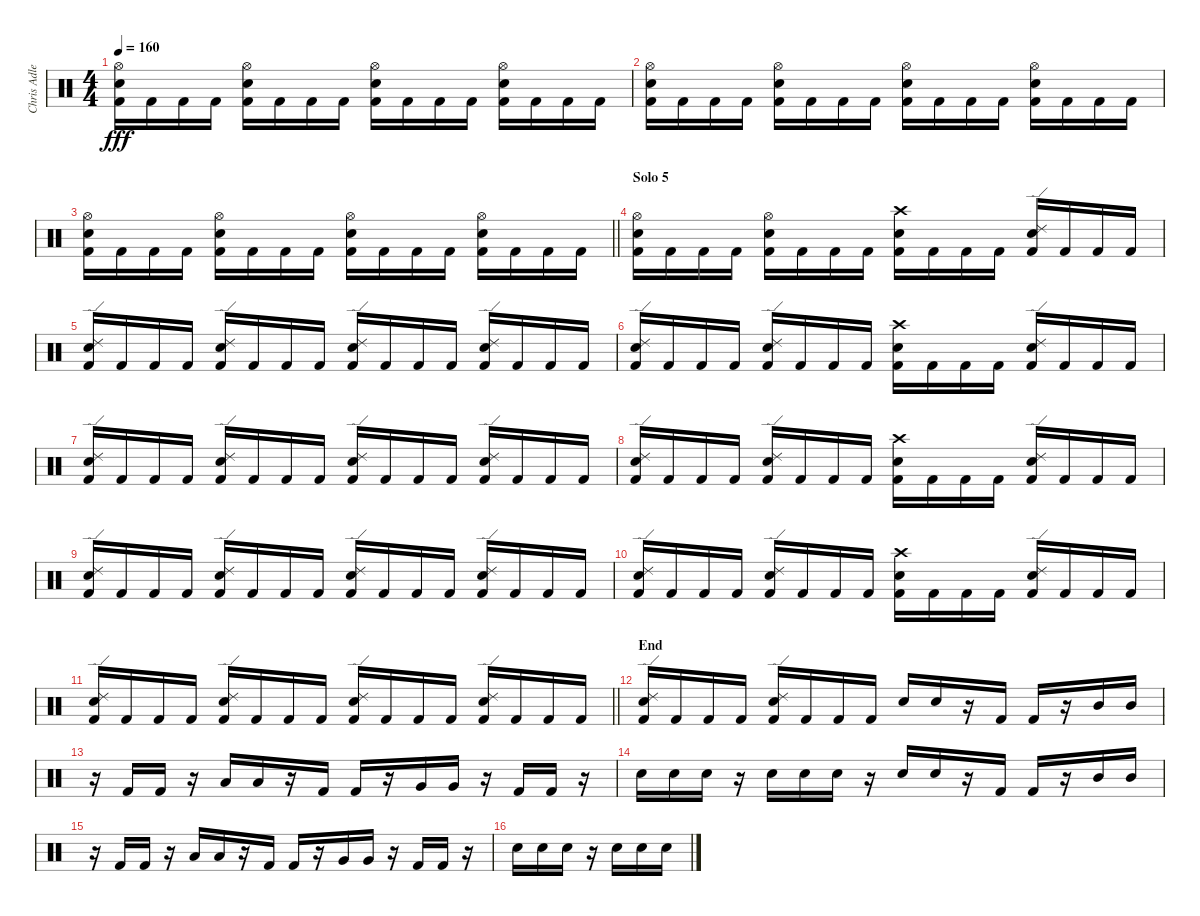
\track ("Chris Adler" "Chris Adle") {instrument percussion}
\staff {score}
\articulation defaults
\ts (4 4)
\tempo 160
\clef neutral
\ks c
("Hi-Hat (open)" "Snare (hit) 2" "Kick (hit) 2").16{dy fff} "Kick (hit) 2".16 "Kick (hit) 2".16 "Kick (hit) 2".16 ("Hi-Hat (open)" "Snare (hit) 2" "Kick (hit) 2").16 "Kick (hit) 2".16 "Kick (hit) 2".16 "Kick (hit) 2".16 ("Hi-Hat (open)" "Snare (hit) 2" "Kick (hit) 2").16 "Kick (hit) 2".16 "Kick (hit) 2".16 "Kick (hit) 2".16 ("Hi-Hat (open)" "Snare (hit) 2" "Kick (hit) 2").16 "Kick (hit) 2".16 "Kick (hit) 2".16 "Kick (hit) 2".16 |
("Hi-Hat (open)" "Snare (hit) 2" "Kick (hit) 2").16 "Kick (hit) 2".16 "Kick (hit) 2".16 "Kick (hit) 2".16 ("Hi-Hat (open)" "Snare (hit) 2" "Kick (hit) 2").16 "Kick (hit) 2".16 "Kick (hit) 2".16 "Kick (hit) 2".16 ("Hi-Hat (open)" "Snare (hit) 2" "Kick (hit) 2").16 "Kick (hit) 2".16 "Kick (hit) 2".16 "Kick (hit) 2".16 ("Hi-Hat (open)" "Snare (hit) 2" "Kick (hit) 2").16 "Kick (hit) 2".16 "Kick (hit) 2".16 "Kick (hit) 2".16 |
\barLineRight lightlight
("Hi-Hat (open)" "Snare (hit) 2" "Kick (hit) 2").16 "Kick (hit) 2".16 "Kick (hit) 2".16 "Kick (hit) 2".16 ("Hi-Hat (open)" "Snare (hit) 2" "Kick (hit) 2").16 "Kick (hit) 2".16 "Kick (hit) 2".16 "Kick (hit) 2".16 ("Hi-Hat (open)" "Snare (hit) 2" "Kick (hit) 2").16 "Kick (hit) 2".16 "Kick (hit) 2".16 "Kick (hit) 2".16 ("Hi-Hat (open)" "Snare (hit) 2" "Kick (hit) 2").16 "Kick (hit) 2".16 "Kick (hit) 2".16 "Kick (hit) 2".16 |
\section ("" "Solo 5")
("Hi-Hat (open)" "Snare (hit) 2" "Kick (hit) 2").16 "Kick (hit) 2".16 "Kick (hit) 2".16 "Kick (hit) 2".16 ("Hi-Hat (open)" "Snare (hit) 2" "Kick (hit) 2").16 "Kick (hit) 2".16 "Kick (hit) 2".16 "Kick (hit) 2".16 ("Crash high (hit)" "Snare (hit) 2" "Kick (hit) 2").16 "Kick (hit) 2".16 "Kick (hit) 2".16 "Kick (hit) 2".16 ("Ride (edge) 2" "Snare (hit) 2" "Kick (hit) 2").16 "Kick (hit) 2".16 "Kick (hit) 2".16 "Kick (hit) 2".16 |
("Ride (edge) 2" "Snare (hit) 2" "Kick (hit) 2").16 "Kick (hit) 2".16 "Kick (hit) 2".16 "Kick (hit) 2".16 ("Ride (edge) 2" "Snare (hit) 2" "Kick (hit) 2").16 "Kick (hit) 2".16 "Kick (hit) 2".16 "Kick (hit) 2".16 ("Ride (edge) 2" "Snare (hit) 2" "Kick (hit) 2").16 "Kick (hit) 2".16 "Kick (hit) 2".16 "Kick (hit) 2".16 ("Ride (edge) 2" "Snare (hit) 2" "Kick (hit) 2").16 "Kick (hit) 2".16 "Kick (hit) 2".16 "Kick (hit) 2".16 |
("Ride (edge) 2" "Snare (hit) 2" "Kick (hit) 2").16 "Kick (hit) 2".16 "Kick (hit) 2".16 "Kick (hit) 2".16 ("Ride (edge) 2" "Snare (hit) 2" "Kick (hit) 2").16 "Kick (hit) 2".16 "Kick (hit) 2".16 "Kick (hit) 2".16 ("Crash high (hit)" "Snare (hit) 2" "Kick (hit) 2").16 "Kick (hit) 2".16 "Kick (hit) 2".16 "Kick (hit) 2".16 ("Ride (edge) 2" "Snare (hit) 2" "Kick (hit) 2").16 "Kick (hit) 2".16 "Kick (hit) 2".16 "Kick (hit) 2".16 |
("Ride (edge) 2" "Snare (hit) 2" "Kick (hit) 2").16 "Kick (hit) 2".16 "Kick (hit) 2".16 "Kick (hit) 2".16 ("Ride (edge) 2" "Snare (hit) 2" "Kick (hit) 2").16 "Kick (hit) 2".16 "Kick (hit) 2".16 "Kick (hit) 2".16 ("Ride (edge) 2" "Snare (hit) 2" "Kick (hit) 2").16 "Kick (hit) 2".16 "Kick (hit) 2".16 "Kick (hit) 2".16 ("Ride (edge) 2" "Snare (hit) 2" "Kick (hit) 2").16 "Kick (hit) 2".16 "Kick (hit) 2".16 "Kick (hit) 2".16 |
("Ride (edge) 2" "Snare (hit) 2" "Kick (hit) 2").16 "Kick (hit) 2".16 "Kick (hit) 2".16 "Kick (hit) 2".16 ("Ride (edge) 2" "Snare (hit) 2" "Kick (hit) 2").16 "Kick (hit) 2".16 "Kick (hit) 2".16 "Kick (hit) 2".16 ("Crash high (hit)" "Snare (hit) 2" "Kick (hit) 2").16 "Kick (hit) 2".16 "Kick (hit) 2".16 "Kick (hit) 2".16 ("Ride (edge) 2" "Snare (hit) 2" "Kick (hit) 2").16 "Kick (hit) 2".16 "Kick (hit) 2".16 "Kick (hit) 2".16 |
("Ride (edge) 2" "Snare (hit) 2" "Kick (hit) 2").16 "Kick (hit) 2".16 "Kick (hit) 2".16 "Kick (hit) 2".16 ("Ride (edge) 2" "Snare (hit) 2" "Kick (hit) 2").16 "Kick (hit) 2".16 "Kick (hit) 2".16 "Kick (hit) 2".16 ("Ride (edge) 2" "Snare (hit) 2" "Kick (hit) 2").16 "Kick (hit) 2".16 "Kick (hit) 2".16 "Kick (hit) 2".16 ("Ride (edge) 2" "Snare (hit) 2" "Kick (hit) 2").16 "Kick (hit) 2".16 "Kick (hit) 2".16 "Kick (hit) 2".16 |
("Ride (edge) 2" "Snare (hit) 2" "Kick (hit) 2").16 "Kick (hit) 2".16 "Kick (hit) 2".16 "Kick (hit) 2".16 ("Ride (edge) 2" "Snare (hit) 2" "Kick (hit) 2").16 "Kick (hit) 2".16 "Kick (hit) 2".16 "Kick (hit) 2".16 ("Crash high (hit)" "Snare (hit) 2" "Kick (hit) 2").16 "Kick (hit) 2".16 "Kick (hit) 2".16 "Kick (hit) 2".16 ("Ride (edge) 2" "Snare (hit) 2" "Kick (hit) 2").16 "Kick (hit) 2".16 "Kick (hit) 2".16 "Kick (hit) 2".16 |
\barLineRight lightlight
("Ride (edge) 2" "Snare (hit) 2" "Kick (hit) 2").16 "Kick (hit) 2".16 "Kick (hit) 2".16 "Kick (hit) 2".16 ("Ride (edge) 2" "Snare (hit) 2" "Kick (hit) 2").16 "Kick (hit) 2".16 "Kick (hit) 2".16 "Kick (hit) 2".16 ("Ride (edge) 2" "Snare (hit) 2" "Kick (hit) 2").16 "Kick (hit) 2".16 "Kick (hit) 2".16 "Kick (hit) 2".16 ("Ride (edge) 2" "Snare (hit) 2" "Kick (hit) 2").16 "Kick (hit) 2".16 "Kick (hit) 2".16 "Kick (hit) 2".16 |
\section ("" "End")
("Ride (edge) 2" "Snare (hit) 2" "Kick (hit) 2").16 "Kick (hit) 2".16 "Kick (hit) 2".16 "Kick (hit) 2".16 ("Ride (edge) 2" "Snare (hit) 2" "Kick (hit) 2").16 "Kick (hit) 2".16 "Kick (hit) 2".16 "Kick (hit) 2".16 "Snare (hit) 2".16 "Snare (hit) 2".16 r.16 "Kick (hit) 2".16 "Kick (hit) 2".16 r.16 "Mid Tom (hit)".16 "Mid Tom (hit)".16 |
r.16 "Kick (hit) 2".16 "Kick (hit) 2".16 r.16 "Low Tom (hit)".16 "Low Tom (hit)".16 r.16 "Kick (hit) 2".16 "Kick (hit) 2".16 r.16 "Very Low Tom (hit)".16 "Very Low Tom (hit)".16 r.16 "Kick (hit) 2".16 "Kick (hit) 2".16 r.16 |
"Snare (hit) 2".16 "Snare (hit) 2".16 "Snare (hit) 2".16 r.16 "Snare (hit) 2".16 "Snare (hit) 2".16 "Snare (hit) 2".16 r.16 "Snare (hit) 2".16 "Snare (hit) 2".16 r.16 "Kick (hit) 2".16 "Kick (hit) 2".16 r.16 "Mid Tom (hit)".16 "Mid Tom (hit)".16 |
r.16 "Kick (hit) 2".16 "Kick (hit) 2".16 r.16 "Low Tom (hit)".16 "Low Tom (hit)".16 r.16 "Kick (hit) 2".16 "Kick (hit) 2".16 r.16 "Very Low Tom (hit)".16 "Very Low Tom (hit)".16 r.16 "Kick (hit) 2".16 "Kick (hit) 2".16 r.16 |
"Snare (hit) 2".16 "Snare (hit) 2".16 "Snare (hit) 2".16 r.16 "Snare (hit) 2".16 "Snare (hit) 2".16 "Snare (hit) 2".16
